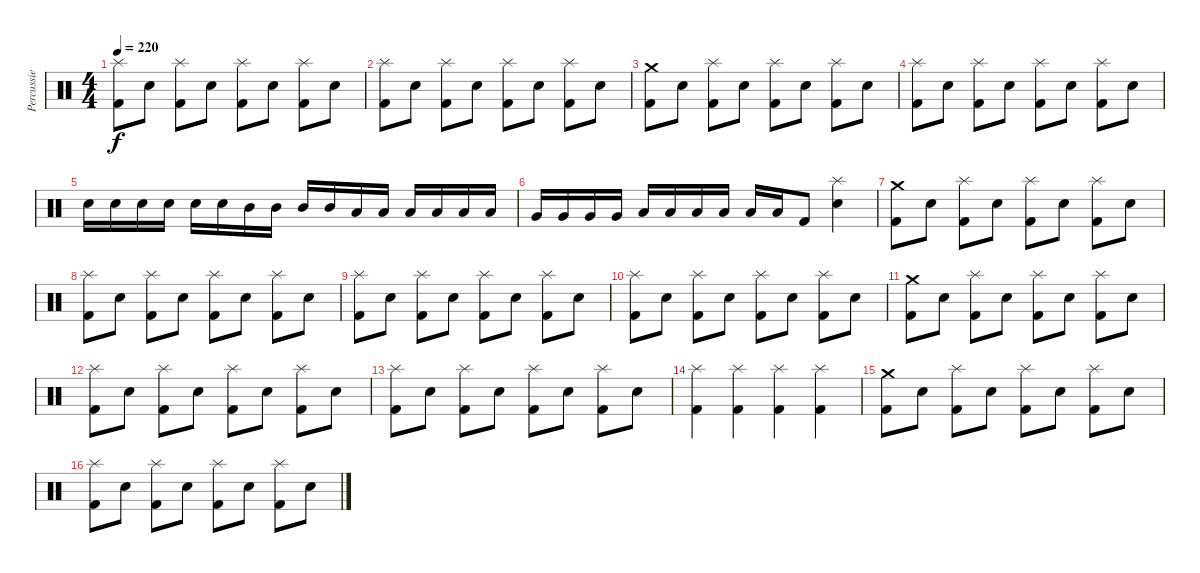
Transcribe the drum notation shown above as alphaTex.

\track ("Percussie" "Percussie") {instrument percussion}
\staff {score}
\articulation defaults
\ts (4 4)
\tempo 220
\clef neutral
\ks c
("Splash (hit)" "Kick (hit) 2").8{dy f} "Electric Snare (hit)".8 ("Splash (hit)" "Kick (hit) 2").8 "Electric Snare (hit)".8 ("Splash (hit)" "Kick (hit) 2").8 "Electric Snare (hit)".8 ("Splash (hit)" "Kick (hit) 2").8 "Electric Snare (hit)".8 |
("Splash (hit)" "Kick (hit) 2").8 "Electric Snare (hit)".8 ("Splash (hit)" "Kick (hit) 2").8 "Electric Snare (hit)".8 ("Splash (hit)" "Kick (hit) 2").8 "Electric Snare (hit)".8 ("Splash (hit)" "Kick (hit) 2").8 "Electric Snare (hit)".8 |
("Crash medium (hit)" "Kick (hit) 2").8 "Electric Snare (hit)".8 ("Splash (hit)" "Kick (hit) 2").8 "Electric Snare (hit)".8 ("Splash (hit)" "Kick (hit) 2").8 "Electric Snare (hit)".8 ("Splash (hit)" "Kick (hit) 2").8 "Electric Snare (hit)".8 |
("Splash (hit)" "Kick (hit) 2").8 "Electric Snare (hit)".8 ("Splash (hit)" "Kick (hit) 2").8 "Electric Snare (hit)".8 ("Splash (hit)" "Kick (hit) 2").8 "Electric Snare (hit)".8 ("Splash (hit)" "Kick (hit) 2").8 "Electric Snare (hit)".8 |
"Electric Snare (hit)".16 "Electric Snare (hit)".16 "Electric Snare (hit)".16 "Electric Snare (hit)".16 "Electric Snare (hit)".16 "Electric Snare (hit)".16 "Mid Tom (hit)".16 "Mid Tom (hit)".16 "Mid Tom (hit)".16 "Mid Tom (hit)".16 "Low Tom (hit)".16 "Low Tom (hit)".16 "Low Tom (hit)".16 "Low Tom (hit)".16 "Low Tom (hit)".16 "Low Tom (hit)".16 |
"Very Low Tom (hit)".16 "Very Low Tom (hit)".16 "Very Low Tom (hit)".16 "Very Low Tom (hit)".16 "Low Floor Tom (hit)".16 "Low Floor Tom (hit)".16 "Low Floor Tom (hit)".16 "Low Floor Tom (hit)".16 "Low Floor Tom (hit)".16 "Low Floor Tom (hit)".16 "Kick (hit) 2".8 ("Splash (hit)" "Electric Snare (hit)").4 |
("Crash medium (hit)" "Kick (hit) 2").8 "Electric Snare (hit)".8 ("Splash (hit)" "Kick (hit) 2").8 "Electric Snare (hit)".8 ("Splash (hit)" "Kick (hit) 2").8 "Electric Snare (hit)".8 ("Splash (hit)" "Kick (hit) 2").8 "Electric Snare (hit)".8 |
("Splash (hit)" "Kick (hit) 2").8 "Electric Snare (hit)".8 ("Splash (hit)" "Kick (hit) 2").8 "Electric Snare (hit)".8 ("Splash (hit)" "Kick (hit) 2").8 "Electric Snare (hit)".8 ("Splash (hit)" "Kick (hit) 2").8 "Electric Snare (hit)".8 |
("Splash (hit)" "Kick (hit) 2").8 "Electric Snare (hit)".8 ("Splash (hit)" "Kick (hit) 2").8 "Electric Snare (hit)".8 ("Splash (hit)" "Kick (hit) 2").8 "Electric Snare (hit)".8 ("Splash (hit)" "Kick (hit) 2").8 "Electric Snare (hit)".8 |
("Splash (hit)" "Kick (hit) 2").8 "Electric Snare (hit)".8 ("Splash (hit)" "Kick (hit) 2").8 "Electric Snare (hit)".8 ("Splash (hit)" "Kick (hit) 2").8 "Electric Snare (hit)".8 ("Splash (hit)" "Kick (hit) 2").8 "Electric Snare (hit)".8 |
("Crash medium (hit)" "Kick (hit) 2").8 "Electric Snare (hit)".8 ("Splash (hit)" "Kick (hit) 2").8 "Electric Snare (hit)".8 ("Splash (hit)" "Kick (hit) 2").8 "Electric Snare (hit)".8 ("Splash (hit)" "Kick (hit) 2").8 "Electric Snare (hit)".8 |
("Splash (hit)" "Kick (hit) 2").8 "Electric Snare (hit)".8 ("Splash (hit)" "Kick (hit) 2").8 "Electric Snare (hit)".8 ("Splash (hit)" "Kick (hit) 2").8 "Electric Snare (hit)".8 ("Splash (hit)" "Kick (hit) 2").8 "Electric Snare (hit)".8 |
("Splash (hit)" "Kick (hit) 2").8 "Electric Snare (hit)".8 ("Splash (hit)" "Kick (hit) 2").8 "Electric Snare (hit)".8 ("Splash (hit)" "Kick (hit) 2").8 "Electric Snare (hit)".8 ("Splash (hit)" "Kick (hit) 2").8 "Electric Snare (hit)".8 |
("Splash (hit)" "Kick (hit) 2").4 ("Splash (hit)" "Kick (hit) 2").4 ("Splash (hit)" "Kick (hit) 2").4 ("Splash (hit)" "Kick (hit) 2").4 |
("Crash medium (hit)" "Kick (hit) 2").8 "Electric Snare (hit)".8 ("Splash (hit)" "Kick (hit) 2").8 "Electric Snare (hit)".8 ("Splash (hit)" "Kick (hit) 2").8 "Electric Snare (hit)".8 ("Splash (hit)" "Kick (hit) 2").8 "Electric Snare (hit)".8 |
("Splash (hit)" "Kick (hit) 2").8 "Electric Snare (hit)".8 ("Splash (hit)" "Kick (hit) 2").8 "Electric Snare (hit)".8 ("Splash (hit)" "Kick (hit) 2").8 "Electric Snare (hit)".8 ("Splash (hit)" "Kick (hit) 2").8 "Electric Snare (hit)".8
